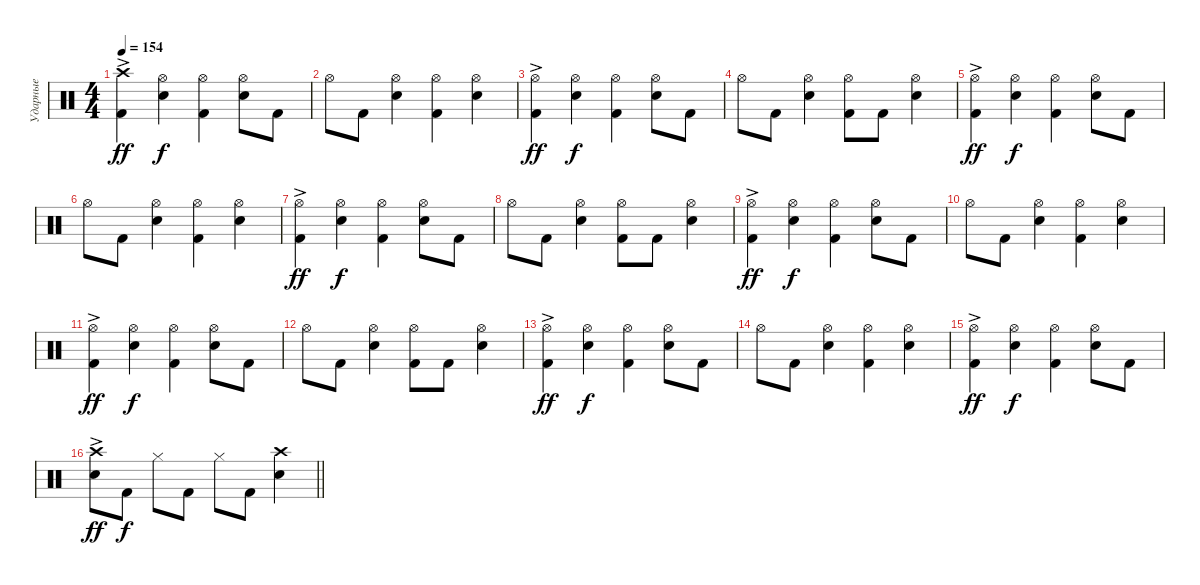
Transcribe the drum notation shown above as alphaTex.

\track ("Ударные" "Ударные") {instrument percussion}
\staff {score}
\articulation defaults
\ts (4 4)
\tempo 154
\clef neutral
\ks c
("Kick (hit) 2" "Crash high (hit)"{ac}).4{dy ff} ("Snare (hit) 2" "Hi-Hat (open)").4{dy f} ("Kick (hit) 2" "Hi-Hat (open)").4 ("Snare (hit) 2" "Hi-Hat (open)").8 "Kick (hit) 2".8 |
"Hi-Hat (open)".8 "Kick (hit) 2".8 ("Snare (hit) 2" "Hi-Hat (open)").4 ("Kick (hit) 2" "Hi-Hat (open)").4 ("Snare (hit) 2" "Hi-Hat (open)").4 |
("Kick (hit) 2" "Hi-Hat (open)"{ac}).4{dy ff} ("Snare (hit) 2" "Hi-Hat (open)").4{dy f} ("Kick (hit) 2" "Hi-Hat (open)").4 ("Snare (hit) 2" "Hi-Hat (open)").8 "Kick (hit) 2".8 |
"Hi-Hat (open)".8 "Kick (hit) 2".8 ("Snare (hit) 2" "Hi-Hat (open)").4 ("Kick (hit) 2" "Hi-Hat (open)").8 "Kick (hit) 2".8 ("Snare (hit) 2" "Hi-Hat (open)").4 |
("Kick (hit) 2" "Hi-Hat (open)"{ac}).4{dy ff} ("Snare (hit) 2" "Hi-Hat (open)").4{dy f} ("Kick (hit) 2" "Hi-Hat (open)").4 ("Snare (hit) 2" "Hi-Hat (open)").8 "Kick (hit) 2".8 |
"Hi-Hat (open)".8 "Kick (hit) 2".8 ("Snare (hit) 2" "Hi-Hat (open)").4 ("Kick (hit) 2" "Hi-Hat (open)").4 ("Snare (hit) 2" "Hi-Hat (open)").4 |
("Kick (hit) 2" "Hi-Hat (open)"{ac}).4{dy ff} ("Snare (hit) 2" "Hi-Hat (open)").4{dy f} ("Kick (hit) 2" "Hi-Hat (open)").4 ("Snare (hit) 2" "Hi-Hat (open)").8 "Kick (hit) 2".8 |
"Hi-Hat (open)".8 "Kick (hit) 2".8 ("Snare (hit) 2" "Hi-Hat (open)").4 ("Kick (hit) 2" "Hi-Hat (open)").8 "Kick (hit) 2".8 ("Snare (hit) 2" "Hi-Hat (open)").4 |
("Kick (hit) 2" "Hi-Hat (open)"{ac}).4{dy ff} ("Snare (hit) 2" "Hi-Hat (open)").4{dy f} ("Kick (hit) 2" "Hi-Hat (open)").4 ("Snare (hit) 2" "Hi-Hat (open)").8 "Kick (hit) 2".8 |
"Hi-Hat (open)".8 "Kick (hit) 2".8 ("Snare (hit) 2" "Hi-Hat (open)").4 ("Kick (hit) 2" "Hi-Hat (open)").4 ("Snare (hit) 2" "Hi-Hat (open)").4 |
("Kick (hit) 2" "Hi-Hat (open)"{ac}).4{dy ff} ("Snare (hit) 2" "Hi-Hat (open)").4{dy f} ("Kick (hit) 2" "Hi-Hat (open)").4 ("Snare (hit) 2" "Hi-Hat (open)").8 "Kick (hit) 2".8 |
"Hi-Hat (open)".8 "Kick (hit) 2".8 ("Snare (hit) 2" "Hi-Hat (open)").4 ("Kick (hit) 2" "Hi-Hat (open)").8 "Kick (hit) 2".8 ("Snare (hit) 2" "Hi-Hat (open)").4 |
("Kick (hit) 2" "Hi-Hat (open)"{ac}).4{dy ff} ("Snare (hit) 2" "Hi-Hat (open)").4{dy f} ("Kick (hit) 2" "Hi-Hat (open)").4 ("Snare (hit) 2" "Hi-Hat (open)").8 "Kick (hit) 2".8 |
"Hi-Hat (open)".8 "Kick (hit) 2".8 ("Snare (hit) 2" "Hi-Hat (open)").4 ("Kick (hit) 2" "Hi-Hat (open)").4 ("Snare (hit) 2" "Hi-Hat (open)").4 |
("Kick (hit) 2" "Hi-Hat (open)"{ac}).4{dy ff} ("Snare (hit) 2" "Hi-Hat (open)").4{dy f} ("Kick (hit) 2" "Hi-Hat (open)").4 ("Snare (hit) 2" "Hi-Hat (open)").8 "Kick (hit) 2".8 |
\barLineRight lightlight
("Snare (hit) 2" "Crash high (hit)"{ac}).8{dy ff} "Kick (hit) 2".8{dy f} "Hi-Hat (closed)".8 "Kick (hit) 2".8 "Hi-Hat (closed)".8 "Kick (hit) 2".8 ("Snare (hit) 2" "Crash high (hit)").4
